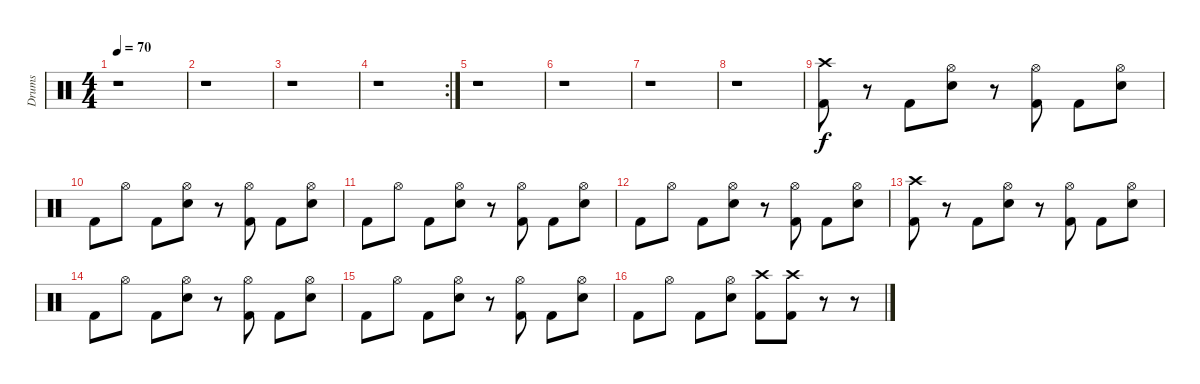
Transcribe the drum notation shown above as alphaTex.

\track ("Drums" "Drums") {instrument percussion}
\staff {score}
\articulation defaults
\ts (4 4)
\tempo 70
\clef neutral
\ks c
r.1{dy f} |
r.1 |
r.1 |
\rc 2
r.1 |
r.1 |
r.1 |
r.1 |
r.1 |
("Crash high (hit)" "Kick (hit) 2").8 r.8 "Kick (hit) 2".8 ("Hi-Hat (open)" "Snare (hit) 2").8 r.8 ("Hi-Hat (open)" "Kick (hit) 2").8 "Kick (hit) 2".8 ("Hi-Hat (open)" "Snare (hit) 2").8 |
"Kick (hit) 2".8 "Hi-Hat (open)".8 "Kick (hit) 2".8 ("Hi-Hat (open)" "Snare (hit) 2").8 r.8 ("Hi-Hat (open)" "Kick (hit) 2").8 "Kick (hit) 2".8 ("Hi-Hat (open)" "Snare (hit) 2").8 |
"Kick (hit) 2".8 "Hi-Hat (open)".8 "Kick (hit) 2".8 ("Hi-Hat (open)" "Snare (hit) 2").8 r.8 ("Hi-Hat (open)" "Kick (hit) 2").8 "Kick (hit) 2".8 ("Hi-Hat (open)" "Snare (hit) 2").8 |
"Kick (hit) 2".8 "Hi-Hat (open)".8 "Kick (hit) 2".8 ("Hi-Hat (open)" "Snare (hit) 2").8 r.8 ("Hi-Hat (open)" "Kick (hit) 2").8 "Kick (hit) 2".8 ("Hi-Hat (open)" "Snare (hit) 2").8 |
("Crash high (hit)" "Kick (hit) 2").8 r.8 "Kick (hit) 2".8 ("Hi-Hat (open)" "Snare (hit) 2").8 r.8 ("Hi-Hat (open)" "Kick (hit) 2").8 "Kick (hit) 2".8 ("Hi-Hat (open)" "Snare (hit) 2").8 |
"Kick (hit) 2".8 "Hi-Hat (open)".8 "Kick (hit) 2".8 ("Hi-Hat (open)" "Snare (hit) 2").8 r.8 ("Hi-Hat (open)" "Kick (hit) 2").8 "Kick (hit) 2".8 ("Hi-Hat (open)" "Snare (hit) 2").8 |
"Kick (hit) 2".8 "Hi-Hat (open)".8 "Kick (hit) 2".8 ("Hi-Hat (open)" "Snare (hit) 2").8 r.8 ("Hi-Hat (open)" "Kick (hit) 2").8 "Kick (hit) 2".8 ("Hi-Hat (open)" "Snare (hit) 2").8 |
"Kick (hit) 2".8 "Hi-Hat (open)".8 "Kick (hit) 2".8 ("Hi-Hat (open)" "Snare (hit) 2").8 ("Crash high (hit)" "Kick (hit) 2").8 ("Crash high (hit)" "Kick (hit) 2").8 r.8 r.8
